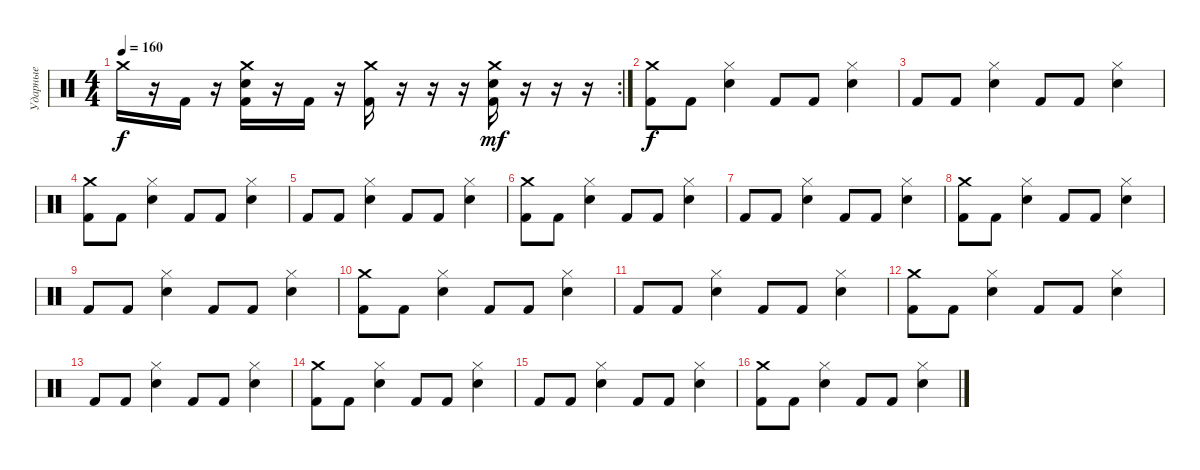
\track ("Ударные" "Ударные") {instrument percussion}
\staff {score}
\articulation defaults
\rc 2
\ts (4 4)
\tempo 160
\clef neutral
\ks c "Crash medium (hit)".16{dy f}
r.16 "Kick (hit) 2".16 r.16 ("Crash medium (hit)" "Electric Snare (hit)" "Kick (hit) 2").16 r.16 "Kick (hit) 2".16 r.16 ("Crash medium (hit)" "Kick (hit) 2").16 r.16 r.16 r.16 ("Crash medium (hit)" "Electric Snare (hit)" "Kick (hit) 2").16{dy mf} r.16 r.16 r.16 |
("Crash medium (hit)" "Kick (hit) 2").8{dy f} "Kick (hit) 2".8 ("Hi-Hat (closed)" "Electric Snare (hit)").4 "Kick (hit) 2".8 "Kick (hit) 2".8 ("Hi-Hat (closed)" "Electric Snare (hit)").4 |
"Kick (hit) 2".8 "Kick (hit) 2".8 ("Hi-Hat (closed)" "Electric Snare (hit)").4 "Kick (hit) 2".8 "Kick (hit) 2".8 ("Hi-Hat (closed)" "Electric Snare (hit)").4 |
("Crash medium (hit)" "Kick (hit) 2").8 "Kick (hit) 2".8 ("Hi-Hat (closed)" "Electric Snare (hit)").4 "Kick (hit) 2".8 "Kick (hit) 2".8 ("Hi-Hat (closed)" "Electric Snare (hit)").4 |
"Kick (hit) 2".8 "Kick (hit) 2".8 ("Hi-Hat (closed)" "Electric Snare (hit)").4 "Kick (hit) 2".8 "Kick (hit) 2".8 ("Hi-Hat (closed)" "Electric Snare (hit)").4 |
("Crash medium (hit)" "Kick (hit) 2").8 "Kick (hit) 2".8 ("Hi-Hat (closed)" "Electric Snare (hit)").4 "Kick (hit) 2".8 "Kick (hit) 2".8 ("Hi-Hat (closed)" "Electric Snare (hit)").4 |
"Kick (hit) 2".8 "Kick (hit) 2".8 ("Hi-Hat (closed)" "Electric Snare (hit)").4 "Kick (hit) 2".8 "Kick (hit) 2".8 ("Hi-Hat (closed)" "Electric Snare (hit)").4 |
("Crash medium (hit)" "Kick (hit) 2").8 "Kick (hit) 2".8 ("Hi-Hat (closed)" "Electric Snare (hit)").4 "Kick (hit) 2".8 "Kick (hit) 2".8 ("Hi-Hat (closed)" "Electric Snare (hit)").4 |
"Kick (hit) 2".8 "Kick (hit) 2".8 ("Hi-Hat (closed)" "Electric Snare (hit)").4 "Kick (hit) 2".8 "Kick (hit) 2".8 ("Hi-Hat (closed)" "Electric Snare (hit)").4 |
("Crash medium (hit)" "Kick (hit) 2").8 "Kick (hit) 2".8 ("Hi-Hat (closed)" "Electric Snare (hit)").4 "Kick (hit) 2".8 "Kick (hit) 2".8 ("Hi-Hat (closed)" "Electric Snare (hit)").4 |
"Kick (hit) 2".8 "Kick (hit) 2".8 ("Hi-Hat (closed)" "Electric Snare (hit)").4 "Kick (hit) 2".8 "Kick (hit) 2".8 ("Hi-Hat (closed)" "Electric Snare (hit)").4 |
("Crash medium (hit)" "Kick (hit) 2").8 "Kick (hit) 2".8 ("Hi-Hat (closed)" "Electric Snare (hit)").4 "Kick (hit) 2".8 "Kick (hit) 2".8 ("Hi-Hat (closed)" "Electric Snare (hit)").4 |
"Kick (hit) 2".8 "Kick (hit) 2".8 ("Hi-Hat (closed)" "Electric Snare (hit)").4 "Kick (hit) 2".8 "Kick (hit) 2".8 ("Hi-Hat (closed)" "Electric Snare (hit)").4 |
("Crash medium (hit)" "Kick (hit) 2").8 "Kick (hit) 2".8 ("Hi-Hat (closed)" "Electric Snare (hit)").4 "Kick (hit) 2".8 "Kick (hit) 2".8 ("Hi-Hat (closed)" "Electric Snare (hit)").4 |
"Kick (hit) 2".8 "Kick (hit) 2".8 ("Hi-Hat (closed)" "Electric Snare (hit)").4 "Kick (hit) 2".8 "Kick (hit) 2".8 ("Hi-Hat (closed)" "Electric Snare (hit)").4 |
("Crash medium (hit)" "Kick (hit) 2").8 "Kick (hit) 2".8 ("Hi-Hat (closed)" "Electric Snare (hit)").4 "Kick (hit) 2".8 "Kick (hit) 2".8 ("Hi-Hat (closed)" "Electric Snare (hit)").4
